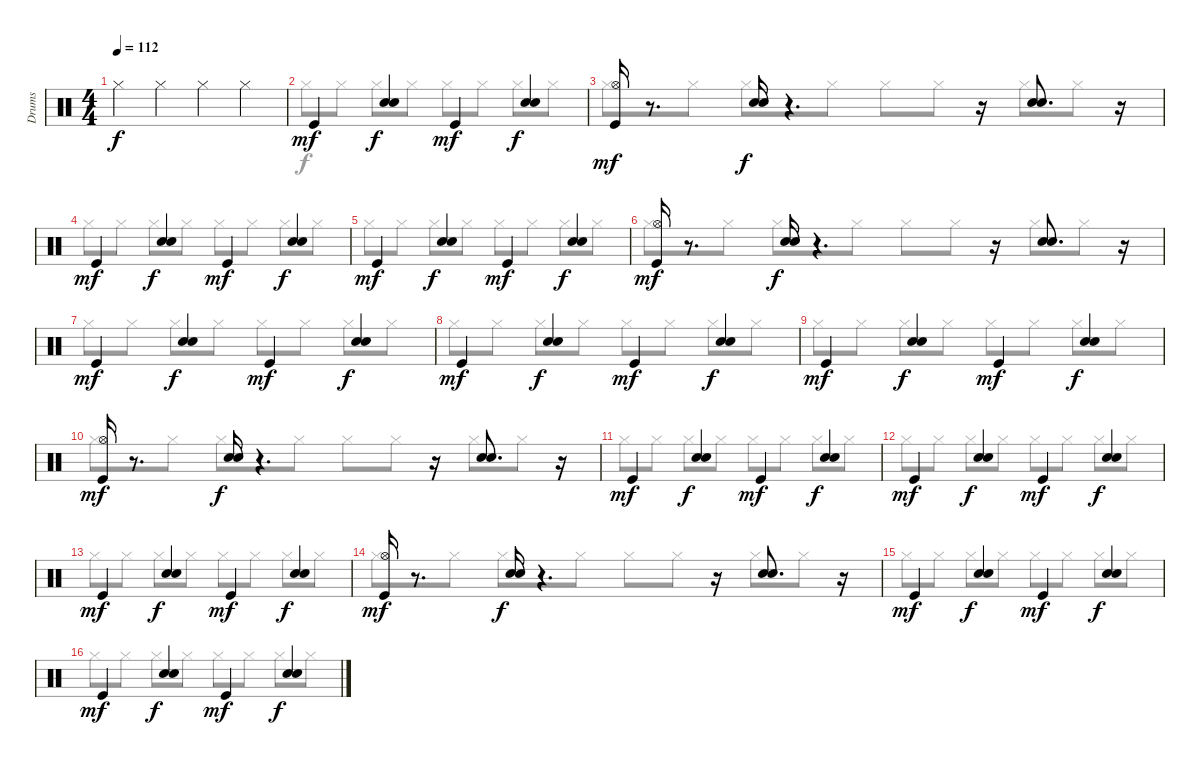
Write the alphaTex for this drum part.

\track ("Drums" "Drums") {instrument percussion}
\staff {score}
\articulation defaults
\voice
\ts (4 4)
\tempo 112
\clef neutral
\ks c "Hi-Hat (closed)".4{dy f} "Hi-Hat (closed)".4 "Hi-Hat (closed)".4 "Hi-Hat (closed)".4
|
"Kick (hit)".4{dy mf} ("Electric Snare (hit)" "Snare (hit) 2").4{dy f} "Kick (hit)".4{dy mf} ("Electric Snare (hit)" "Snare (hit) 2").4{dy f} |
("Hi-Hat (open)" "Kick (hit)").16{dy mf} r.8{d} ("Electric Snare (hit)" "Snare (hit) 2").16{dy f} r.4{d} r.16 ("Electric Snare (hit)" "Snare (hit) 2").8{d} r.16 |
"Kick (hit)".4{dy mf} ("Electric Snare (hit)" "Snare (hit) 2").4{dy f} "Kick (hit)".4{dy mf} ("Electric Snare (hit)" "Snare (hit) 2").4{dy f} |
"Kick (hit)".4{dy mf} ("Electric Snare (hit)" "Snare (hit) 2").4{dy f} "Kick (hit)".4{dy mf} ("Electric Snare (hit)" "Snare (hit) 2").4{dy f} |
("Hi-Hat (open)" "Kick (hit)").16{dy mf} r.8{d} ("Electric Snare (hit)" "Snare (hit) 2").16{dy f} r.4{d} r.16 ("Electric Snare (hit)" "Snare (hit) 2").8{d} r.16 |
"Kick (hit)".4{dy mf} ("Electric Snare (hit)" "Snare (hit) 2").4{dy f} "Kick (hit)".4{dy mf} ("Electric Snare (hit)" "Snare (hit) 2").4{dy f} |
"Kick (hit)".4{dy mf} ("Electric Snare (hit)" "Snare (hit) 2").4{dy f} "Kick (hit)".4{dy mf} ("Electric Snare (hit)" "Snare (hit) 2").4{dy f} |
"Kick (hit)".4{dy mf} ("Electric Snare (hit)" "Snare (hit) 2").4{dy f} "Kick (hit)".4{dy mf} ("Electric Snare (hit)" "Snare (hit) 2").4{dy f} |
("Hi-Hat (open)" "Kick (hit)").16{dy mf} r.8{d} ("Electric Snare (hit)" "Snare (hit) 2").16{dy f} r.4{d} r.16 ("Electric Snare (hit)" "Snare (hit) 2").8{d} r.16 |
"Kick (hit)".4{dy mf} ("Electric Snare (hit)" "Snare (hit) 2").4{dy f} "Kick (hit)".4{dy mf} ("Electric Snare (hit)" "Snare (hit) 2").4{dy f} |
"Kick (hit)".4{dy mf} ("Electric Snare (hit)" "Snare (hit) 2").4{dy f} "Kick (hit)".4{dy mf} ("Electric Snare (hit)" "Snare (hit) 2").4{dy f} |
"Kick (hit)".4{dy mf} ("Electric Snare (hit)" "Snare (hit) 2").4{dy f} "Kick (hit)".4{dy mf} ("Electric Snare (hit)" "Snare (hit) 2").4{dy f} |
("Hi-Hat (open)" "Kick (hit)").16{dy mf} r.8{d} ("Electric Snare (hit)" "Snare (hit) 2").16{dy f} r.4{d} r.16 ("Electric Snare (hit)" "Snare (hit) 2").8{d} r.16 |
"Kick (hit)".4{dy mf} ("Electric Snare (hit)" "Snare (hit) 2").4{dy f} "Kick (hit)".4{dy mf} ("Electric Snare (hit)" "Snare (hit) 2").4{dy f} |
"Kick (hit)".4{dy mf} ("Electric Snare (hit)" "Snare (hit) 2").4{dy f} "Kick (hit)".4{dy mf} ("Electric Snare (hit)" "Snare (hit) 2").4{dy f}
\voice
\clef neutral
\ottava regular
\simile none
\ks c
|
"Hi-Hat (closed)".8 "Hi-Hat (closed)".8 "Hi-Hat (closed)".8 "Hi-Hat (closed)".8 "Hi-Hat (closed)".8 "Hi-Hat (closed)".8 "Hi-Hat (closed)".8 "Hi-Hat (closed)".8 |
"Hi-Hat (closed)".8 "Hi-Hat (closed)".8 "Hi-Hat (closed)".8 "Hi-Hat (closed)".8 "Hi-Hat (closed)".8 "Hi-Hat (closed)".8 "Hi-Hat (closed)".8 "Hi-Hat (closed)".8 |
"Hi-Hat (closed)".8 "Hi-Hat (closed)".8 "Hi-Hat (closed)".8 "Hi-Hat (closed)".8 "Hi-Hat (closed)".8 "Hi-Hat (closed)".8 "Hi-Hat (closed)".8 "Hi-Hat (closed)".8 |
"Hi-Hat (closed)".8 "Hi-Hat (closed)".8 "Hi-Hat (closed)".8 "Hi-Hat (closed)".8 "Hi-Hat (closed)".8 "Hi-Hat (closed)".8 "Hi-Hat (closed)".8 "Hi-Hat (closed)".8 |
"Hi-Hat (closed)".8 "Hi-Hat (closed)".8 "Hi-Hat (closed)".8 "Hi-Hat (closed)".8 "Hi-Hat (closed)".8 "Hi-Hat (closed)".8 "Hi-Hat (closed)".8 "Hi-Hat (closed)".8 |
"Hi-Hat (closed)".8 "Hi-Hat (closed)".8 "Hi-Hat (closed)".8 "Hi-Hat (closed)".8 "Hi-Hat (closed)".8 "Hi-Hat (closed)".8 "Hi-Hat (closed)".8 "Hi-Hat (closed)".8 |
"Hi-Hat (closed)".8 "Hi-Hat (closed)".8 "Hi-Hat (closed)".8 "Hi-Hat (closed)".8 "Hi-Hat (closed)".8 "Hi-Hat (closed)".8 "Hi-Hat (closed)".8 "Hi-Hat (closed)".8 |
"Hi-Hat (closed)".8 "Hi-Hat (closed)".8 "Hi-Hat (closed)".8 "Hi-Hat (closed)".8 "Hi-Hat (closed)".8 "Hi-Hat (closed)".8 "Hi-Hat (closed)".8 "Hi-Hat (closed)".8 |
"Hi-Hat (closed)".8 "Hi-Hat (closed)".8 "Hi-Hat (closed)".8 "Hi-Hat (closed)".8 "Hi-Hat (closed)".8 "Hi-Hat (closed)".8 "Hi-Hat (closed)".8 "Hi-Hat (closed)".8 |
"Hi-Hat (closed)".8 "Hi-Hat (closed)".8 "Hi-Hat (closed)".8 "Hi-Hat (closed)".8 "Hi-Hat (closed)".8 "Hi-Hat (closed)".8 "Hi-Hat (closed)".8 "Hi-Hat (closed)".8 |
"Hi-Hat (closed)".8 "Hi-Hat (closed)".8 "Hi-Hat (closed)".8 "Hi-Hat (closed)".8 "Hi-Hat (closed)".8 "Hi-Hat (closed)".8 "Hi-Hat (closed)".8 "Hi-Hat (closed)".8 |
"Hi-Hat (closed)".8 "Hi-Hat (closed)".8 "Hi-Hat (closed)".8 "Hi-Hat (closed)".8 "Hi-Hat (closed)".8 "Hi-Hat (closed)".8 "Hi-Hat (closed)".8 "Hi-Hat (closed)".8 |
"Hi-Hat (closed)".8 "Hi-Hat (closed)".8 "Hi-Hat (closed)".8 "Hi-Hat (closed)".8 "Hi-Hat (closed)".8 "Hi-Hat (closed)".8 "Hi-Hat (closed)".8 "Hi-Hat (closed)".8 |
"Hi-Hat (closed)".8 "Hi-Hat (closed)".8 "Hi-Hat (closed)".8 "Hi-Hat (closed)".8 "Hi-Hat (closed)".8 "Hi-Hat (closed)".8 "Hi-Hat (closed)".8 "Hi-Hat (closed)".8 |
"Hi-Hat (closed)".8 "Hi-Hat (closed)".8 "Hi-Hat (closed)".8 "Hi-Hat (closed)".8 "Hi-Hat (closed)".8 "Hi-Hat (closed)".8 "Hi-Hat (closed)".8 "Hi-Hat (closed)".8
